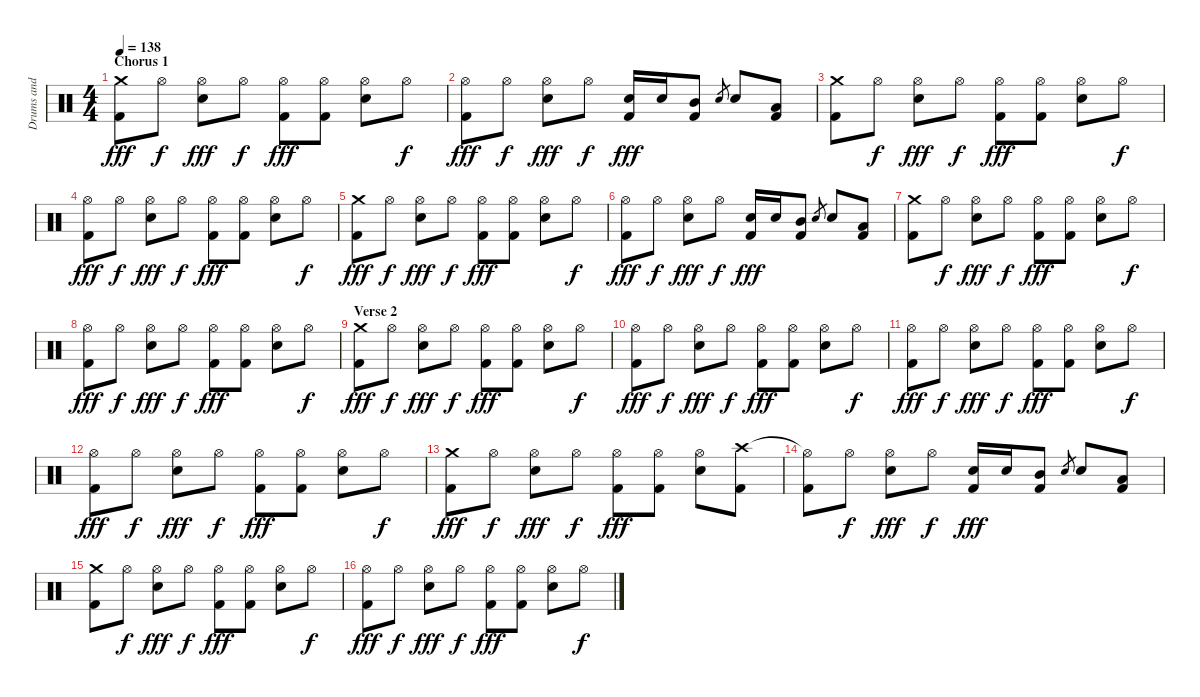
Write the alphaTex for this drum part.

\track ("Drums and Percussion" "Drums and ") {instrument percussion}
\staff {score}
\articulation defaults
\ts (4 4)
\section ("" "Chorus 1")
\tempo 138
\clef neutral
\ks c
("Crash medium (hit)" "Kick (hit) 2").8{dy fff} "Hi-Hat (open)".8{dy f} ("Hi-Hat (open)" "Snare (hit) 2").8{dy fff} "Hi-Hat (open)".8{dy f} ("Hi-Hat (open)" "Kick (hit) 2").8{dy fff} ("Hi-Hat (open)" "Kick (hit) 2").8 ("Hi-Hat (open)" "Snare (hit) 2").8 "Hi-Hat (open)".8{dy f} |
("Hi-Hat (open)" "Kick (hit) 2").8{dy fff} "Hi-Hat (open)".8{dy f} ("Hi-Hat (open)" "Snare (hit) 2").8{dy fff} "Hi-Hat (open)".8{dy f} ("Snare (hit) 2" "Kick (hit) 2").16{dy fff} "Snare (hit) 2".16 ("Mid Tom (hit)" "Kick (hit) 2").8 "Snare (hit) 2".8{gr} "Snare (hit) 2".8 ("Low Tom (hit)" "Kick (hit) 2").8 |
("Crash medium (hit)" "Kick (hit) 2").8 "Hi-Hat (open)".8{dy f} ("Hi-Hat (open)" "Snare (hit) 2").8{dy fff} "Hi-Hat (open)".8{dy f} ("Hi-Hat (open)" "Kick (hit) 2").8{dy fff} ("Hi-Hat (open)" "Kick (hit) 2").8 ("Hi-Hat (open)" "Snare (hit) 2").8 "Hi-Hat (open)".8{dy f} |
("Hi-Hat (open)" "Kick (hit) 2").8{dy fff} "Hi-Hat (open)".8{dy f} ("Hi-Hat (open)" "Snare (hit) 2").8{dy fff} "Hi-Hat (open)".8{dy f} ("Hi-Hat (open)" "Kick (hit) 2").8{dy fff} ("Hi-Hat (open)" "Kick (hit) 2").8 ("Hi-Hat (open)" "Snare (hit) 2").8 "Hi-Hat (open)".8{dy f} |
("Crash medium (hit)" "Kick (hit) 2").8{dy fff} "Hi-Hat (open)".8{dy f} ("Hi-Hat (open)" "Snare (hit) 2").8{dy fff} "Hi-Hat (open)".8{dy f} ("Hi-Hat (open)" "Kick (hit) 2").8{dy fff} ("Hi-Hat (open)" "Kick (hit) 2").8 ("Hi-Hat (open)" "Snare (hit) 2").8 "Hi-Hat (open)".8{dy f} |
("Hi-Hat (open)" "Kick (hit) 2").8{dy fff} "Hi-Hat (open)".8{dy f} ("Hi-Hat (open)" "Snare (hit) 2").8{dy fff} "Hi-Hat (open)".8{dy f} ("Snare (hit) 2" "Kick (hit) 2").16{dy fff} "Snare (hit) 2".16 ("Mid Tom (hit)" "Kick (hit) 2").8 "Snare (hit) 2".8{gr} "Snare (hit) 2".8 ("Low Tom (hit)" "Kick (hit) 2").8 |
("Crash medium (hit)" "Kick (hit) 2").8 "Hi-Hat (open)".8{dy f} ("Hi-Hat (open)" "Snare (hit) 2").8{dy fff} "Hi-Hat (open)".8{dy f} ("Hi-Hat (open)" "Kick (hit) 2").8{dy fff} ("Hi-Hat (open)" "Kick (hit) 2").8 ("Hi-Hat (open)" "Snare (hit) 2").8 "Hi-Hat (open)".8{dy f} |
("Hi-Hat (open)" "Kick (hit) 2").8{dy fff} "Hi-Hat (open)".8{dy f} ("Hi-Hat (open)" "Snare (hit) 2").8{dy fff} "Hi-Hat (open)".8{dy f} ("Hi-Hat (open)" "Kick (hit) 2").8{dy fff} ("Hi-Hat (open)" "Kick (hit) 2").8 ("Hi-Hat (open)" "Snare (hit) 2").8 "Hi-Hat (open)".8{dy f} |
\section ("" "Verse 2")
("Crash medium (hit)" "Kick (hit) 2").8{dy fff} "Hi-Hat (open)".8{dy f} ("Hi-Hat (open)" "Snare (hit) 2").8{dy fff} "Hi-Hat (open)".8{dy f} ("Hi-Hat (open)" "Kick (hit) 2").8{dy fff} ("Hi-Hat (open)" "Kick (hit) 2").8 ("Hi-Hat (open)" "Snare (hit) 2").8 "Hi-Hat (open)".8{dy f} |
("Hi-Hat (open)" "Kick (hit) 2").8{dy fff} "Hi-Hat (open)".8{dy f} ("Hi-Hat (open)" "Snare (hit) 2").8{dy fff} "Hi-Hat (open)".8{dy f} ("Hi-Hat (open)" "Kick (hit) 2").8{dy fff} ("Hi-Hat (open)" "Kick (hit) 2").8 ("Hi-Hat (open)" "Snare (hit) 2").8 "Hi-Hat (open)".8{dy f} |
("Hi-Hat (open)" "Kick (hit) 2").8{dy fff} "Hi-Hat (open)".8{dy f} ("Hi-Hat (open)" "Snare (hit) 2").8{dy fff} "Hi-Hat (open)".8{dy f} ("Hi-Hat (open)" "Kick (hit) 2").8{dy fff} ("Hi-Hat (open)" "Kick (hit) 2").8 ("Hi-Hat (open)" "Snare (hit) 2").8 "Hi-Hat (open)".8{dy f} |
("Hi-Hat (open)" "Kick (hit) 2").8{dy fff} "Hi-Hat (open)".8{dy f} ("Hi-Hat (open)" "Snare (hit) 2").8{dy fff} "Hi-Hat (open)".8{dy f} ("Hi-Hat (open)" "Kick (hit) 2").8{dy fff} ("Hi-Hat (open)" "Kick (hit) 2").8 ("Hi-Hat (open)" "Snare (hit) 2").8 "Hi-Hat (open)".8{dy f} |
("Crash medium (hit)" "Kick (hit) 2").8{dy fff} "Hi-Hat (open)".8{dy f} ("Hi-Hat (open)" "Snare (hit) 2").8{dy fff} "Hi-Hat (open)".8{dy f} ("Hi-Hat (open)" "Kick (hit) 2").8{dy fff} ("Hi-Hat (open)" "Kick (hit) 2").8 ("Hi-Hat (open)" "Snare (hit) 2").8 ("Crash high (hit)" "Kick (hit) 2").8 |
("Hi-Hat (open)"{t} "Kick (hit) 2").8 "Hi-Hat (open)".8{dy f} ("Hi-Hat (open)" "Snare (hit) 2").8{dy fff} "Hi-Hat (open)".8{dy f} ("Snare (hit) 2" "Kick (hit) 2").16{dy fff} "Snare (hit) 2".16 ("Mid Tom (hit)" "Kick (hit) 2").8 "Snare (hit) 2".8{gr} "Snare (hit) 2".8 ("Low Tom (hit)" "Kick (hit) 2").8 |
("Crash medium (hit)" "Kick (hit) 2").8 "Hi-Hat (open)".8{dy f} ("Hi-Hat (open)" "Snare (hit) 2").8{dy fff} "Hi-Hat (open)".8{dy f} ("Hi-Hat (open)" "Kick (hit) 2").8{dy fff} ("Hi-Hat (open)" "Kick (hit) 2").8 ("Hi-Hat (open)" "Snare (hit) 2").8 "Hi-Hat (open)".8{dy f} |
("Hi-Hat (open)" "Kick (hit) 2").8{dy fff} "Hi-Hat (open)".8{dy f} ("Hi-Hat (open)" "Snare (hit) 2").8{dy fff} "Hi-Hat (open)".8{dy f} ("Hi-Hat (open)" "Kick (hit) 2").8{dy fff} ("Hi-Hat (open)" "Kick (hit) 2").8 ("Hi-Hat (open)" "Snare (hit) 2").8 "Hi-Hat (open)".8{dy f}
